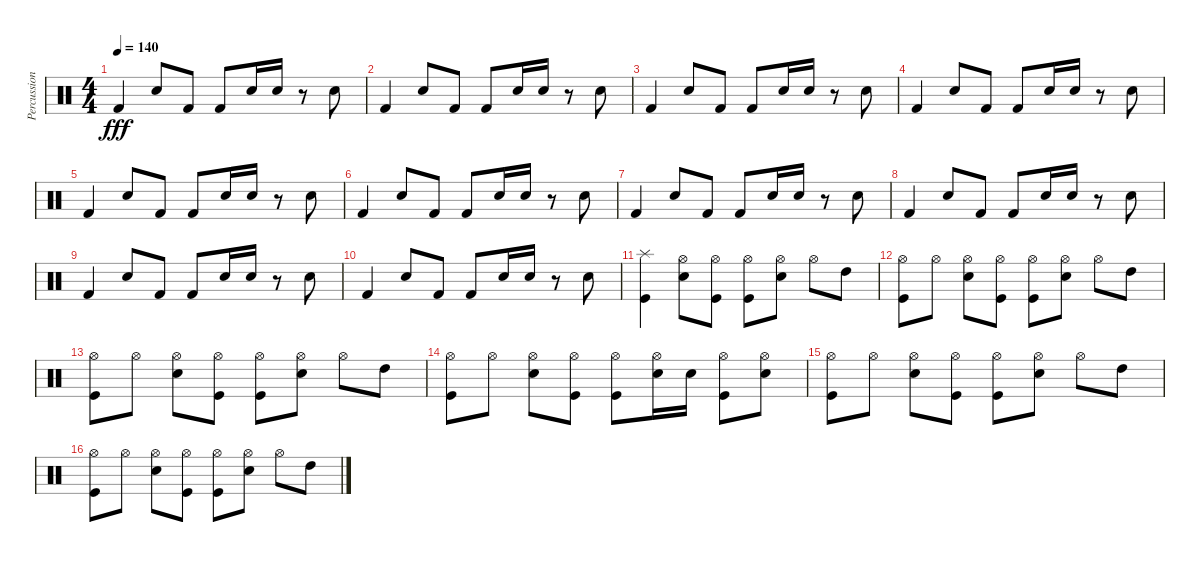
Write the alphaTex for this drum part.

\track ("Percussion" "Percussion") {instrument percussion}
\staff {score}
\articulation defaults
\ts (4 4)
\tempo 140
\clef neutral
\ks c "Kick (hit) 2".4{dy fff} "Snare (hit) 2".8 "Kick (hit) 2".8 "Kick (hit) 2".8 "Snare (hit) 2".16 "Snare (hit) 2".16
r.8 "Snare (hit) 2".8 |
"Kick (hit) 2".4 "Snare (hit) 2".8 "Kick (hit) 2".8 "Kick (hit) 2".8 "Snare (hit) 2".16 "Snare (hit) 2".16 r.8 "Snare (hit) 2".8 |
"Kick (hit) 2".4 "Snare (hit) 2".8 "Kick (hit) 2".8 "Kick (hit) 2".8 "Snare (hit) 2".16 "Snare (hit) 2".16 r.8 "Snare (hit) 2".8 |
"Kick (hit) 2".4 "Snare (hit) 2".8 "Kick (hit) 2".8 "Kick (hit) 2".8 "Snare (hit) 2".16 "Snare (hit) 2".16 r.8 "Snare (hit) 2".8 |
"Kick (hit) 2".4 "Snare (hit) 2".8 "Kick (hit) 2".8 "Kick (hit) 2".8 "Snare (hit) 2".16 "Snare (hit) 2".16 r.8 "Snare (hit) 2".8 |
"Kick (hit) 2".4 "Snare (hit) 2".8 "Kick (hit) 2".8 "Kick (hit) 2".8 "Snare (hit) 2".16 "Snare (hit) 2".16 r.8 "Snare (hit) 2".8 |
"Kick (hit) 2".4 "Snare (hit) 2".8 "Kick (hit) 2".8 "Kick (hit) 2".8 "Snare (hit) 2".16 "Snare (hit) 2".16 r.8 "Snare (hit) 2".8 |
"Kick (hit) 2".4 "Snare (hit) 2".8 "Kick (hit) 2".8 "Kick (hit) 2".8 "Snare (hit) 2".16 "Snare (hit) 2".16 r.8 "Snare (hit) 2".8 |
"Kick (hit) 2".4 "Snare (hit) 2".8 "Kick (hit) 2".8 "Kick (hit) 2".8 "Snare (hit) 2".16 "Snare (hit) 2".16 r.8 "Snare (hit) 2".8 |
"Kick (hit) 2".4 "Snare (hit) 2".8 "Kick (hit) 2".8 "Kick (hit) 2".8 "Snare (hit) 2".16 "Snare (hit) 2".16 r.8 "Snare (hit) 2".8 |
("Splash (hit)" "Kick (hit)").4 ("Hi-Hat (open)" "Snare (hit) 2").8 ("Hi-Hat (open)" "Kick (hit)").8 ("Hi-Hat (open)" "Kick (hit)").8 ("Hi-Hat (open)" "Snare (hit) 2").8 "Hi-Hat (open)".8 "High Tom (hit)".8 |
("Hi-Hat (open)" "Kick (hit)").8 "Hi-Hat (open)".8 ("Hi-Hat (open)" "Snare (hit) 2").8 ("Hi-Hat (open)" "Kick (hit)").8 ("Hi-Hat (open)" "Kick (hit)").8 ("Hi-Hat (open)" "Snare (hit) 2").8 "Hi-Hat (open)".8 "High Tom (hit)".8 |
("Hi-Hat (open)" "Kick (hit)").8 "Hi-Hat (open)".8 ("Hi-Hat (open)" "Snare (hit) 2").8 ("Hi-Hat (open)" "Kick (hit)").8 ("Hi-Hat (open)" "Kick (hit)").8 ("Hi-Hat (open)" "Snare (hit) 2").8 "Hi-Hat (open)".8 "High Tom (hit)".8 |
("Hi-Hat (open)" "Kick (hit)").8 "Hi-Hat (open)".8 ("Hi-Hat (open)" "Snare (hit) 2").8 ("Hi-Hat (open)" "Kick (hit)").8 ("Hi-Hat (open)" "Kick (hit)").8 ("Hi-Hat (open)" "Snare (hit) 2").16 "Snare (hit) 2".16 ("Hi-Hat (open)" "Kick (hit)").8 ("Hi-Hat (open)" "Snare (hit) 2").8 |
("Hi-Hat (open)" "Kick (hit)").8 "Hi-Hat (open)".8 ("Hi-Hat (open)" "Snare (hit) 2").8 ("Hi-Hat (open)" "Kick (hit)").8 ("Hi-Hat (open)" "Kick (hit)").8 ("Hi-Hat (open)" "Snare (hit) 2").8 "Hi-Hat (open)".8 "High Tom (hit)".8 |
("Hi-Hat (open)" "Kick (hit)").8 "Hi-Hat (open)".8 ("Hi-Hat (open)" "Snare (hit) 2").8 ("Hi-Hat (open)" "Kick (hit)").8 ("Hi-Hat (open)" "Kick (hit)").8 ("Hi-Hat (open)" "Snare (hit) 2").8 "Hi-Hat (open)".8 "High Tom (hit)".8
